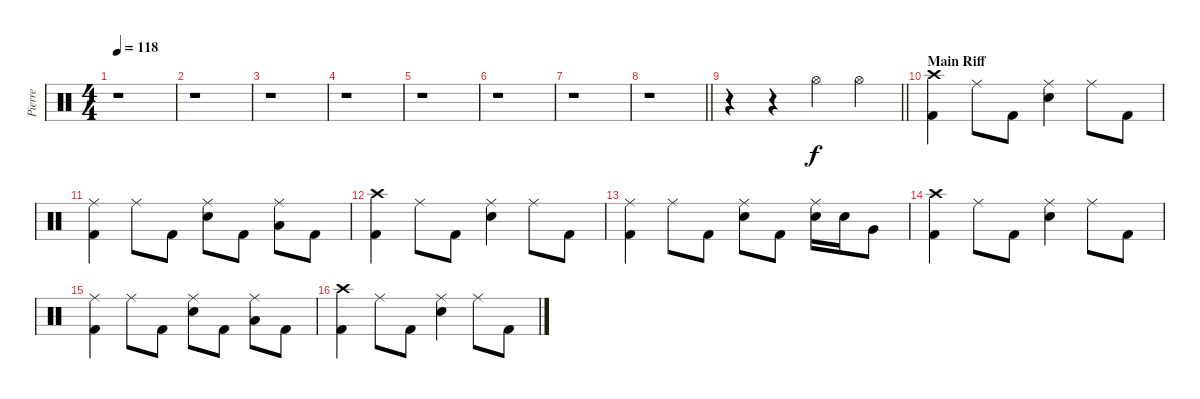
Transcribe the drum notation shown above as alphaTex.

\track ("Pierre" "Pierre") {instrument percussion}
\staff {score}
\articulation defaults
\ts (4 4)
\tempo 118
\clef neutral
\ks c
r.1{dy f} |
r.1 |
r.1 |
r.1 |
r.1 |
r.1 |
r.1 |
\barLineRight lightlight
r.1 |
\barLineRight lightlight
r.4 r.4 "Hi-Hat (open)".4 "Hi-Hat (open)".4 |
\section ("" "Main Riff")
("Crash high (hit)" "Kick (hit) 2").4 "Ride (middle)".8 "Kick (hit) 2".8 ("Ride (middle)" "Snare (hit) 2").4 "Ride (middle)".8 "Kick (hit) 2".8 |
("Ride (middle)" "Kick (hit) 2").4 "Ride (middle)".8 "Kick (hit) 2".8 ("Ride (middle)" "Snare (hit) 2").8 "Kick (hit) 2".8 ("Ride (middle)" "Low Tom (hit)").8 "Kick (hit) 2".8 |
("Crash high (hit)" "Kick (hit) 2").4 "Ride (middle)".8 "Kick (hit) 2".8 ("Ride (middle)" "Snare (hit) 2").4 "Ride (middle)".8 "Kick (hit) 2".8 |
("Ride (middle)" "Kick (hit) 2").4 "Ride (middle)".8 "Kick (hit) 2".8 ("Ride (middle)" "Snare (hit) 2").8 "Kick (hit) 2".8 ("Ride (middle)" "Snare (hit) 2").16 "Snare (hit) 2".16 "Very Low Tom (hit)".8 |
("Crash high (hit)" "Kick (hit) 2").4 "Ride (middle)".8 "Kick (hit) 2".8 ("Ride (middle)" "Snare (hit) 2").4 "Ride (middle)".8 "Kick (hit) 2".8 |
("Ride (middle)" "Kick (hit) 2").4 "Ride (middle)".8 "Kick (hit) 2".8 ("Ride (middle)" "Snare (hit) 2").8 "Kick (hit) 2".8 ("Ride (middle)" "Low Tom (hit)").8 "Kick (hit) 2".8 |
("Crash high (hit)" "Kick (hit) 2").4 "Ride (middle)".8 "Kick (hit) 2".8 ("Ride (middle)" "Snare (hit) 2").4 "Ride (middle)".8 "Kick (hit) 2".8
